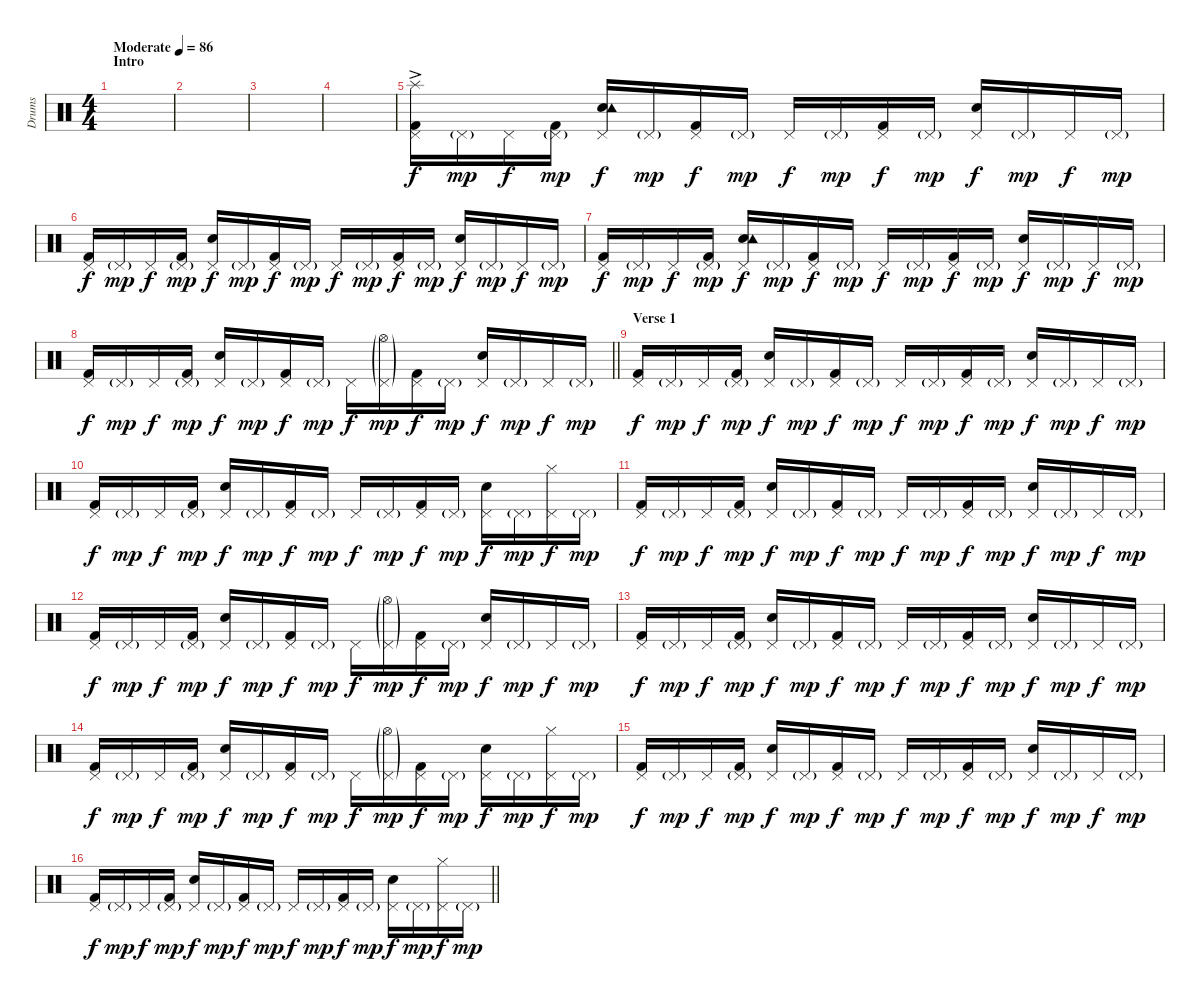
\track ("Drums" "Drums") {instrument percussion}
\staff {score}
\articulation defaults
\ts (4 4)
\section ("" "Intro")
\tempo (86 "Moderate")
\clef neutral
\ks c
|
|
|
|
("Pedal Hi-Hat (hit)" "Kick (hit) 2" "Splash (hit)"{ac}).16 "Pedal Hi-Hat (hit)"{g}.16{dy mp} "Pedal Hi-Hat (hit)".16{dy f} ("Pedal Hi-Hat (hit)"{g} "Kick (hit) 2").16{dy mp} ("Pedal Hi-Hat (hit)" "Snare (hit) 2" "Tambourine (hit)").16{dy f} "Pedal Hi-Hat (hit)"{g}.16{dy mp} ("Pedal Hi-Hat (hit)" "Kick (hit) 2").16{dy f} "Pedal Hi-Hat (hit)"{g}.16{dy mp} "Pedal Hi-Hat (hit)".16{dy f} "Pedal Hi-Hat (hit)"{g}.16{dy mp} ("Pedal Hi-Hat (hit)" "Kick (hit) 2").16{dy f} "Pedal Hi-Hat (hit)"{g}.16{dy mp} ("Pedal Hi-Hat (hit)" "Snare (hit) 2").16{dy f} "Pedal Hi-Hat (hit)"{g}.16{dy mp} "Pedal Hi-Hat (hit)".16{dy f} "Pedal Hi-Hat (hit)"{g}.16{dy mp} |
("Pedal Hi-Hat (hit)" "Kick (hit) 2").16{dy f} "Pedal Hi-Hat (hit)"{g}.16{dy mp} "Pedal Hi-Hat (hit)".16{dy f} ("Pedal Hi-Hat (hit)"{g} "Kick (hit) 2").16{dy mp} ("Pedal Hi-Hat (hit)" "Snare (hit) 2").16{dy f} "Pedal Hi-Hat (hit)"{g}.16{dy mp} ("Pedal Hi-Hat (hit)" "Kick (hit) 2").16{dy f} "Pedal Hi-Hat (hit)"{g}.16{dy mp} "Pedal Hi-Hat (hit)".16{dy f} "Pedal Hi-Hat (hit)"{g}.16{dy mp} ("Pedal Hi-Hat (hit)" "Kick (hit) 2").16{dy f} "Pedal Hi-Hat (hit)"{g}.16{dy mp} ("Pedal Hi-Hat (hit)" "Snare (hit) 2").16{dy f} "Pedal Hi-Hat (hit)"{g}.16{dy mp} "Pedal Hi-Hat (hit)".16{dy f} "Pedal Hi-Hat (hit)"{g}.16{dy mp} |
("Pedal Hi-Hat (hit)" "Kick (hit) 2").16{dy f} "Pedal Hi-Hat (hit)"{g}.16{dy mp} "Pedal Hi-Hat (hit)".16{dy f} ("Pedal Hi-Hat (hit)"{g} "Kick (hit) 2").16{dy mp} ("Pedal Hi-Hat (hit)" "Snare (hit) 2" "Tambourine (hit)").16{dy f} "Pedal Hi-Hat (hit)"{g}.16{dy mp} ("Pedal Hi-Hat (hit)" "Kick (hit) 2").16{dy f} "Pedal Hi-Hat (hit)"{g}.16{dy mp} "Pedal Hi-Hat (hit)".16{dy f} "Pedal Hi-Hat (hit)"{g}.16{dy mp} ("Pedal Hi-Hat (hit)" "Kick (hit) 2").16{dy f} "Pedal Hi-Hat (hit)"{g}.16{dy mp} ("Pedal Hi-Hat (hit)" "Snare (hit) 2").16{dy f} "Pedal Hi-Hat (hit)"{g}.16{dy mp} "Pedal Hi-Hat (hit)".16{dy f} "Pedal Hi-Hat (hit)"{g}.16{dy mp} |
\barLineRight lightlight
("Pedal Hi-Hat (hit)" "Kick (hit) 2").16{dy f} "Pedal Hi-Hat (hit)"{g}.16{dy mp} "Pedal Hi-Hat (hit)".16{dy f} ("Pedal Hi-Hat (hit)"{g} "Kick (hit) 2").16{dy mp} ("Pedal Hi-Hat (hit)" "Snare (hit) 2").16{dy f} "Pedal Hi-Hat (hit)"{g}.16{dy mp} ("Pedal Hi-Hat (hit)" "Kick (hit) 2").16{dy f} "Pedal Hi-Hat (hit)"{g}.16{dy mp} "Pedal Hi-Hat (hit)".16{dy f} ("Pedal Hi-Hat (hit)"{g} "Hi-Hat (open)"{g}).16{dy mp} ("Pedal Hi-Hat (hit)" "Kick (hit) 2").16{dy f} "Pedal Hi-Hat (hit)"{g}.16{dy mp} ("Pedal Hi-Hat (hit)" "Snare (hit) 2").16{dy f} "Pedal Hi-Hat (hit)"{g}.16{dy mp} "Pedal Hi-Hat (hit)".16{dy f} "Pedal Hi-Hat (hit)"{g}.16{dy mp} |
\section ("" "Verse 1")
("Pedal Hi-Hat (hit)" "Kick (hit) 2").16{dy f} "Pedal Hi-Hat (hit)"{g}.16{dy mp} "Pedal Hi-Hat (hit)".16{dy f} ("Pedal Hi-Hat (hit)"{g} "Kick (hit) 2").16{dy mp} ("Pedal Hi-Hat (hit)" "Snare (hit) 2").16{dy f} "Pedal Hi-Hat (hit)"{g}.16{dy mp} ("Pedal Hi-Hat (hit)" "Kick (hit) 2").16{dy f} "Pedal Hi-Hat (hit)"{g}.16{dy mp} "Pedal Hi-Hat (hit)".16{dy f} "Pedal Hi-Hat (hit)"{g}.16{dy mp} ("Pedal Hi-Hat (hit)" "Kick (hit) 2").16{dy f} "Pedal Hi-Hat (hit)"{g}.16{dy mp} ("Pedal Hi-Hat (hit)" "Snare (hit) 2").16{dy f} "Pedal Hi-Hat (hit)"{g}.16{dy mp} "Pedal Hi-Hat (hit)".16{dy f} "Pedal Hi-Hat (hit)"{g}.16{dy mp} |
("Pedal Hi-Hat (hit)" "Kick (hit) 2").16{dy f} "Pedal Hi-Hat (hit)"{g}.16{dy mp} "Pedal Hi-Hat (hit)".16{dy f} ("Pedal Hi-Hat (hit)"{g} "Kick (hit) 2").16{dy mp} ("Pedal Hi-Hat (hit)" "Snare (hit) 2").16{dy f} "Pedal Hi-Hat (hit)"{g}.16{dy mp} ("Pedal Hi-Hat (hit)" "Kick (hit) 2").16{dy f} "Pedal Hi-Hat (hit)"{g}.16{dy mp} "Pedal Hi-Hat (hit)".16{dy f} "Pedal Hi-Hat (hit)"{g}.16{dy mp} ("Pedal Hi-Hat (hit)" "Kick (hit) 2").16{dy f} "Pedal Hi-Hat (hit)"{g}.16{dy mp} ("Pedal Hi-Hat (hit)" "Snare (hit) 2").16{dy f} "Pedal Hi-Hat (hit)"{g}.16{dy mp} ("Pedal Hi-Hat (hit)" "Hi-Hat (closed)").16{dy f} "Pedal Hi-Hat (hit)"{g}.16{dy mp} |
("Pedal Hi-Hat (hit)" "Kick (hit) 2").16{dy f} "Pedal Hi-Hat (hit)"{g}.16{dy mp} "Pedal Hi-Hat (hit)".16{dy f} ("Pedal Hi-Hat (hit)"{g} "Kick (hit) 2").16{dy mp} ("Pedal Hi-Hat (hit)" "Snare (hit) 2").16{dy f} "Pedal Hi-Hat (hit)"{g}.16{dy mp} ("Pedal Hi-Hat (hit)" "Kick (hit) 2").16{dy f} "Pedal Hi-Hat (hit)"{g}.16{dy mp} "Pedal Hi-Hat (hit)".16{dy f} "Pedal Hi-Hat (hit)"{g}.16{dy mp} ("Pedal Hi-Hat (hit)" "Kick (hit) 2").16{dy f} "Pedal Hi-Hat (hit)"{g}.16{dy mp} ("Pedal Hi-Hat (hit)" "Snare (hit) 2").16{dy f} "Pedal Hi-Hat (hit)"{g}.16{dy mp} "Pedal Hi-Hat (hit)".16{dy f} "Pedal Hi-Hat (hit)"{g}.16{dy mp} |
("Pedal Hi-Hat (hit)" "Kick (hit) 2").16{dy f} "Pedal Hi-Hat (hit)"{g}.16{dy mp} "Pedal Hi-Hat (hit)".16{dy f} ("Pedal Hi-Hat (hit)"{g} "Kick (hit) 2").16{dy mp} ("Pedal Hi-Hat (hit)" "Snare (hit) 2").16{dy f} "Pedal Hi-Hat (hit)"{g}.16{dy mp} ("Pedal Hi-Hat (hit)" "Kick (hit) 2").16{dy f} "Pedal Hi-Hat (hit)"{g}.16{dy mp} "Pedal Hi-Hat (hit)".16{dy f} ("Pedal Hi-Hat (hit)"{g} "Hi-Hat (open)"{g}).16{dy mp} ("Pedal Hi-Hat (hit)" "Kick (hit) 2").16{dy f} "Pedal Hi-Hat (hit)"{g}.16{dy mp} ("Pedal Hi-Hat (hit)" "Snare (hit) 2").16{dy f} "Pedal Hi-Hat (hit)"{g}.16{dy mp} "Pedal Hi-Hat (hit)".16{dy f} "Pedal Hi-Hat (hit)"{g}.16{dy mp} |
("Pedal Hi-Hat (hit)" "Kick (hit) 2").16{dy f} "Pedal Hi-Hat (hit)"{g}.16{dy mp} "Pedal Hi-Hat (hit)".16{dy f} ("Pedal Hi-Hat (hit)"{g} "Kick (hit) 2").16{dy mp} ("Pedal Hi-Hat (hit)" "Snare (hit) 2").16{dy f} "Pedal Hi-Hat (hit)"{g}.16{dy mp} ("Pedal Hi-Hat (hit)" "Kick (hit) 2").16{dy f} "Pedal Hi-Hat (hit)"{g}.16{dy mp} "Pedal Hi-Hat (hit)".16{dy f} "Pedal Hi-Hat (hit)"{g}.16{dy mp} ("Pedal Hi-Hat (hit)" "Kick (hit) 2").16{dy f} "Pedal Hi-Hat (hit)"{g}.16{dy mp} ("Pedal Hi-Hat (hit)" "Snare (hit) 2").16{dy f} "Pedal Hi-Hat (hit)"{g}.16{dy mp} "Pedal Hi-Hat (hit)".16{dy f} "Pedal Hi-Hat (hit)"{g}.16{dy mp} |
("Pedal Hi-Hat (hit)" "Kick (hit) 2").16{dy f} "Pedal Hi-Hat (hit)"{g}.16{dy mp} "Pedal Hi-Hat (hit)".16{dy f} ("Pedal Hi-Hat (hit)"{g} "Kick (hit) 2").16{dy mp} ("Pedal Hi-Hat (hit)" "Snare (hit) 2").16{dy f} "Pedal Hi-Hat (hit)"{g}.16{dy mp} ("Pedal Hi-Hat (hit)" "Kick (hit) 2").16{dy f} "Pedal Hi-Hat (hit)"{g}.16{dy mp} "Pedal Hi-Hat (hit)".16{dy f} ("Pedal Hi-Hat (hit)"{g} "Hi-Hat (open)"{g}).16{dy mp} ("Pedal Hi-Hat (hit)" "Kick (hit) 2").16{dy f} "Pedal Hi-Hat (hit)"{g}.16{dy mp} ("Pedal Hi-Hat (hit)" "Snare (hit) 2").16{dy f} "Pedal Hi-Hat (hit)"{g}.16{dy mp} ("Pedal Hi-Hat (hit)" "Hi-Hat (closed)").16{dy f} "Pedal Hi-Hat (hit)"{g}.16{dy mp} |
("Pedal Hi-Hat (hit)" "Kick (hit) 2").16{dy f} "Pedal Hi-Hat (hit)"{g}.16{dy mp} "Pedal Hi-Hat (hit)".16{dy f} ("Pedal Hi-Hat (hit)"{g} "Kick (hit) 2").16{dy mp} ("Pedal Hi-Hat (hit)" "Snare (hit) 2").16{dy f} "Pedal Hi-Hat (hit)"{g}.16{dy mp} ("Pedal Hi-Hat (hit)" "Kick (hit) 2").16{dy f} "Pedal Hi-Hat (hit)"{g}.16{dy mp} "Pedal Hi-Hat (hit)".16{dy f} "Pedal Hi-Hat (hit)"{g}.16{dy mp} ("Pedal Hi-Hat (hit)" "Kick (hit) 2").16{dy f} "Pedal Hi-Hat (hit)"{g}.16{dy mp} ("Pedal Hi-Hat (hit)" "Snare (hit) 2").16{dy f} "Pedal Hi-Hat (hit)"{g}.16{dy mp} "Pedal Hi-Hat (hit)".16{dy f} "Pedal Hi-Hat (hit)"{g}.16{dy mp} |
\barLineRight lightlight
("Pedal Hi-Hat (hit)" "Kick (hit) 2").16{dy f} "Pedal Hi-Hat (hit)"{g}.16{dy mp} "Pedal Hi-Hat (hit)".16{dy f} ("Pedal Hi-Hat (hit)"{g} "Kick (hit) 2").16{dy mp} ("Pedal Hi-Hat (hit)" "Snare (hit) 2").16{dy f} "Pedal Hi-Hat (hit)"{g}.16{dy mp} ("Pedal Hi-Hat (hit)" "Kick (hit) 2").16{dy f} "Pedal Hi-Hat (hit)"{g}.16{dy mp} "Pedal Hi-Hat (hit)".16{dy f} "Pedal Hi-Hat (hit)"{g}.16{dy mp} ("Pedal Hi-Hat (hit)" "Kick (hit) 2").16{dy f} "Pedal Hi-Hat (hit)"{g}.16{dy mp} ("Pedal Hi-Hat (hit)" "Snare (hit) 2").16{dy f} "Pedal Hi-Hat (hit)"{g}.16{dy mp} ("Pedal Hi-Hat (hit)" "Hi-Hat (closed)").16{dy f} "Pedal Hi-Hat (hit)"{g}.16{dy mp}
